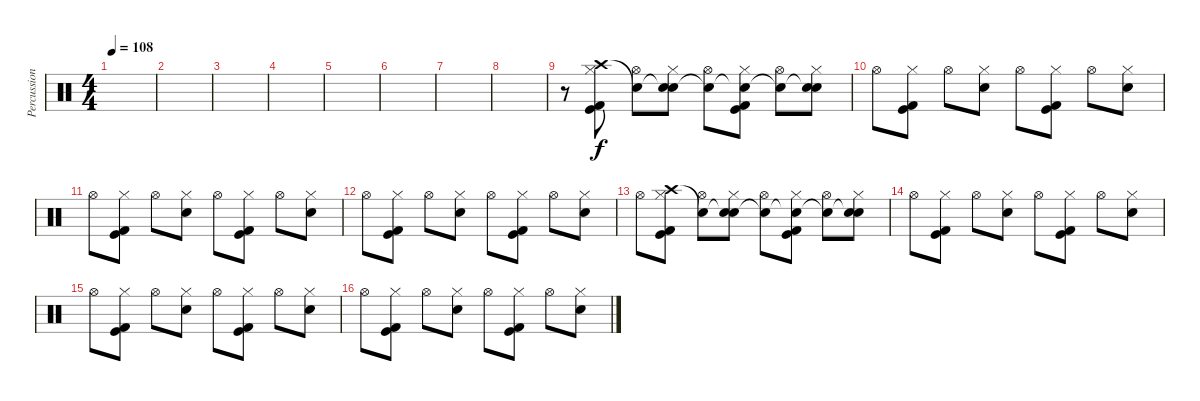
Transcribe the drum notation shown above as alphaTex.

\track ("Percussion" "Percussion") {instrument percussion}
\staff {score}
\articulation defaults
\ts (4 4)
\tempo 108
\clef neutral
\ks c
|
|
|
|
|
|
|
|
r.8 ("Hi-Hat (closed)" "Crash high (hit)" "Kick (hit)" "Kick (hit) 2").8 ("Hi-Hat (open)" "Snare (hit)"{t}).8 ("Hi-Hat (closed)" "Snare (hit)"{t} "Snare (hit) 2").8 ("Hi-Hat (open)" "Snare (hit)"{t}).8 ("Hi-Hat (closed)" "Snare (hit)"{t} "Kick (hit)" "Kick (hit) 2").8 ("Hi-Hat (open)" "Snare (hit)"{t}).8 ("Hi-Hat (closed)" "Snare (hit)"{t} "Snare (hit) 2").8 |
"Hi-Hat (open)".8 ("Hi-Hat (closed)" "Kick (hit)" "Kick (hit) 2").8 "Hi-Hat (open)".8 ("Hi-Hat (closed)" "Snare (hit) 2").8 "Hi-Hat (open)".8 ("Hi-Hat (closed)" "Kick (hit)" "Kick (hit) 2").8 "Hi-Hat (open)".8 ("Hi-Hat (closed)" "Snare (hit) 2").8 |
"Hi-Hat (open)".8 ("Hi-Hat (closed)" "Kick (hit)" "Kick (hit) 2").8 "Hi-Hat (open)".8 ("Hi-Hat (closed)" "Snare (hit) 2").8 "Hi-Hat (open)".8 ("Hi-Hat (closed)" "Kick (hit)" "Kick (hit) 2").8 "Hi-Hat (open)".8 ("Hi-Hat (closed)" "Snare (hit) 2").8 |
"Hi-Hat (open)".8 ("Hi-Hat (closed)" "Kick (hit)" "Kick (hit) 2").8 "Hi-Hat (open)".8 ("Hi-Hat (closed)" "Snare (hit) 2").8 "Hi-Hat (open)".8 ("Hi-Hat (closed)" "Kick (hit)" "Kick (hit) 2").8 "Hi-Hat (open)".8 ("Hi-Hat (closed)" "Snare (hit) 2").8 |
"Hi-Hat (open)".8 ("Hi-Hat (closed)" "Crash high (hit)" "Kick (hit)" "Kick (hit) 2").8 ("Hi-Hat (open)" "Snare (hit)"{t}).8 ("Hi-Hat (closed)" "Snare (hit)"{t} "Snare (hit) 2").8 ("Hi-Hat (open)" "Snare (hit)"{t}).8 ("Hi-Hat (closed)" "Snare (hit)"{t} "Kick (hit)" "Kick (hit) 2").8 ("Hi-Hat (open)" "Snare (hit)"{t}).8 ("Hi-Hat (closed)" "Snare (hit)"{t} "Snare (hit) 2").8 |
"Hi-Hat (open)".8 ("Hi-Hat (closed)" "Kick (hit)" "Kick (hit) 2").8 "Hi-Hat (open)".8 ("Hi-Hat (closed)" "Snare (hit) 2").8 "Hi-Hat (open)".8 ("Hi-Hat (closed)" "Kick (hit)" "Kick (hit) 2").8 "Hi-Hat (open)".8 ("Hi-Hat (closed)" "Snare (hit) 2").8 |
"Hi-Hat (open)".8 ("Hi-Hat (closed)" "Kick (hit)" "Kick (hit) 2").8 "Hi-Hat (open)".8 ("Hi-Hat (closed)" "Snare (hit) 2").8 "Hi-Hat (open)".8 ("Hi-Hat (closed)" "Kick (hit)" "Kick (hit) 2").8 "Hi-Hat (open)".8 ("Hi-Hat (closed)" "Snare (hit) 2").8 |
"Hi-Hat (open)".8 ("Hi-Hat (closed)" "Kick (hit)" "Kick (hit) 2").8 "Hi-Hat (open)".8 ("Hi-Hat (closed)" "Snare (hit) 2").8 "Hi-Hat (open)".8 ("Hi-Hat (closed)" "Kick (hit)" "Kick (hit) 2").8 "Hi-Hat (open)".8 ("Hi-Hat (closed)" "Snare (hit) 2").8
